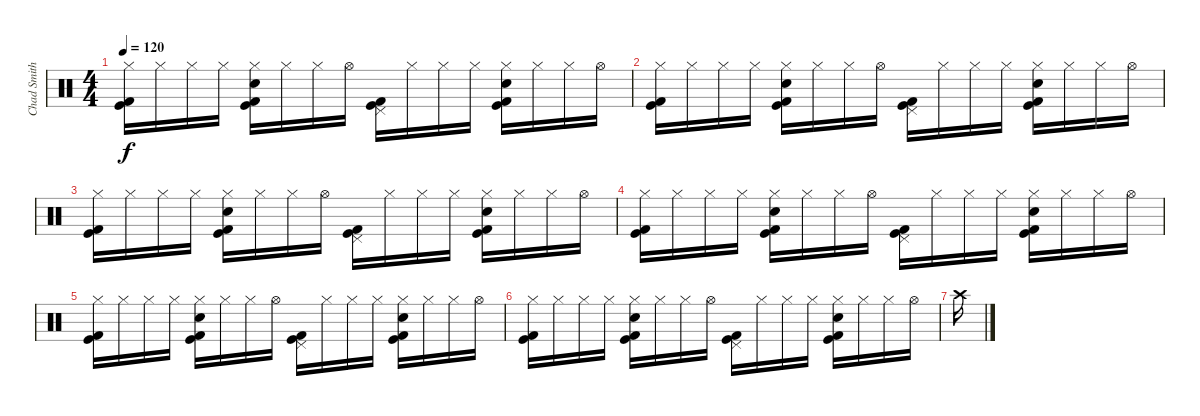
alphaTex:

\track ("Chad Smith" "Chad Smith") {instrument percussion}
\staff {score}
\articulation defaults
\ts (4 4)
\tempo 120
\clef neutral
\ks c
("Hi-Hat (closed)" "Kick (hit) 2" "Kick (hit)").16{dy f} "Hi-Hat (closed)".16 "Hi-Hat (closed)".16 "Hi-Hat (closed)".16 ("Hi-Hat (closed)" "Snare (hit) 2" "Kick (hit) 2" "Kick (hit)").16 "Hi-Hat (closed)".16 "Hi-Hat (closed)".16 "Hi-Hat (open)".16 ("Pedal Hi-Hat (hit)" "Kick (hit) 2" "Kick (hit)").16 "Hi-Hat (closed)".16 "Hi-Hat (closed)".16 "Hi-Hat (closed)".16 ("Hi-Hat (closed)" "Snare (hit) 2" "Kick (hit) 2" "Kick (hit)").16 "Hi-Hat (closed)".16 "Hi-Hat (closed)".16 "Hi-Hat (open)".16 |
("Hi-Hat (closed)" "Kick (hit) 2" "Kick (hit)").16 "Hi-Hat (closed)".16 "Hi-Hat (closed)".16 "Hi-Hat (closed)".16 ("Hi-Hat (closed)" "Snare (hit) 2" "Kick (hit) 2" "Kick (hit)").16 "Hi-Hat (closed)".16 "Hi-Hat (closed)".16 "Hi-Hat (open)".16 ("Pedal Hi-Hat (hit)" "Kick (hit) 2" "Kick (hit)").16 "Hi-Hat (closed)".16 "Hi-Hat (closed)".16 "Hi-Hat (closed)".16 ("Hi-Hat (closed)" "Snare (hit) 2" "Kick (hit) 2" "Kick (hit)").16 "Hi-Hat (closed)".16 "Hi-Hat (closed)".16 "Hi-Hat (open)".16 |
("Hi-Hat (closed)" "Kick (hit) 2" "Kick (hit)").16 "Hi-Hat (closed)".16 "Hi-Hat (closed)".16 "Hi-Hat (closed)".16 ("Hi-Hat (closed)" "Snare (hit) 2" "Kick (hit) 2" "Kick (hit)").16 "Hi-Hat (closed)".16 "Hi-Hat (closed)".16 "Hi-Hat (open)".16 ("Pedal Hi-Hat (hit)" "Kick (hit) 2" "Kick (hit)").16 "Hi-Hat (closed)".16 "Hi-Hat (closed)".16 "Hi-Hat (closed)".16 ("Hi-Hat (closed)" "Snare (hit) 2" "Kick (hit) 2" "Kick (hit)").16 "Hi-Hat (closed)".16 "Hi-Hat (closed)".16 "Hi-Hat (open)".16 |
("Hi-Hat (closed)" "Kick (hit) 2" "Kick (hit)").16 "Hi-Hat (closed)".16 "Hi-Hat (closed)".16 "Hi-Hat (closed)".16 ("Hi-Hat (closed)" "Snare (hit) 2" "Kick (hit) 2" "Kick (hit)").16 "Hi-Hat (closed)".16 "Hi-Hat (closed)".16 "Hi-Hat (open)".16 ("Pedal Hi-Hat (hit)" "Kick (hit) 2" "Kick (hit)").16 "Hi-Hat (closed)".16 "Hi-Hat (closed)".16 "Hi-Hat (closed)".16 ("Hi-Hat (closed)" "Snare (hit) 2" "Kick (hit) 2" "Kick (hit)").16 "Hi-Hat (closed)".16 "Hi-Hat (closed)".16 "Hi-Hat (open)".16 |
("Hi-Hat (closed)" "Kick (hit) 2" "Kick (hit)").16 "Hi-Hat (closed)".16 "Hi-Hat (closed)".16 "Hi-Hat (closed)".16 ("Hi-Hat (closed)" "Snare (hit) 2" "Kick (hit) 2" "Kick (hit)").16 "Hi-Hat (closed)".16 "Hi-Hat (closed)".16 "Hi-Hat (open)".16 ("Pedal Hi-Hat (hit)" "Kick (hit) 2" "Kick (hit)").16 "Hi-Hat (closed)".16 "Hi-Hat (closed)".16 "Hi-Hat (closed)".16 ("Hi-Hat (closed)" "Snare (hit) 2" "Kick (hit) 2" "Kick (hit)").16 "Hi-Hat (closed)".16 "Hi-Hat (closed)".16 "Hi-Hat (open)".16 |
("Hi-Hat (closed)" "Kick (hit) 2" "Kick (hit)").16 "Hi-Hat (closed)".16 "Hi-Hat (closed)".16 "Hi-Hat (closed)".16 ("Hi-Hat (closed)" "Snare (hit) 2" "Kick (hit) 2" "Kick (hit)").16 "Hi-Hat (closed)".16 "Hi-Hat (closed)".16 "Hi-Hat (open)".16 ("Pedal Hi-Hat (hit)" "Kick (hit) 2" "Kick (hit)").16 "Hi-Hat (closed)".16 "Hi-Hat (closed)".16 "Hi-Hat (closed)".16 ("Hi-Hat (closed)" "Snare (hit) 2" "Kick (hit) 2" "Kick (hit)").16 "Hi-Hat (closed)".16 "Hi-Hat (closed)".16 "Hi-Hat (open)".16 |
"Crash high (hit)".16
